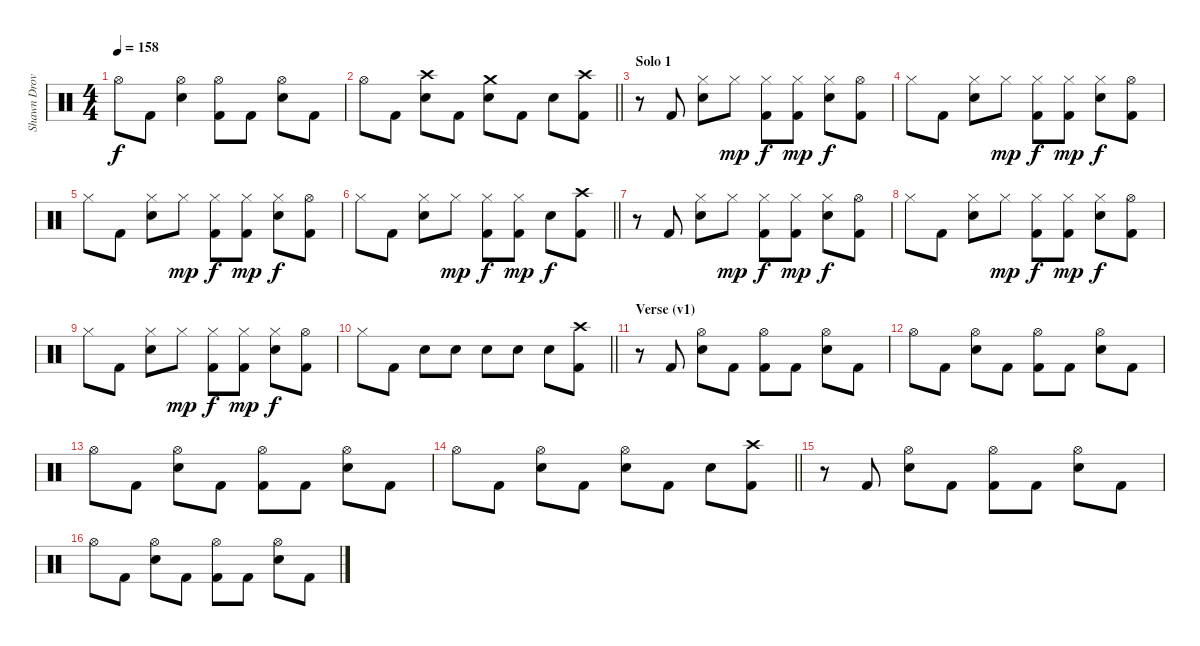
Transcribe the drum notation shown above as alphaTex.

\track ("Shawn Drover" "Shawn Drov") {instrument percussion}
\staff
\articulation defaults
\ts (4 4)
\tempo 158
\clef neutral
\ks c "Hi-Hat (open)".8{dy f} "Kick (hit) 2".8
("Hi-Hat (open)" "Snare (hit) 2").4 ("Hi-Hat (open)" "Kick (hit) 2").8 "Kick (hit) 2".8 ("Hi-Hat (open)" "Snare (hit) 2").8 "Kick (hit) 2".8 |
\barLineRight lightlight "Hi-Hat (open)".8 "Kick (hit) 2".8
("Crash high (hit)" "Snare (hit) 2").8 "Kick (hit) 2".8 ("Crash medium (hit)" "Snare (hit) 2").8 "Kick (hit) 2".8 "Snare (hit) 2".8 ("Crash high (hit)" "Kick (hit) 2").8 |
\section ("" "Solo 1")
r.8 "Kick (hit) 2".8 ("Hi-Hat (closed)" "Snare (hit) 2").8 "Hi-Hat (closed)".8{dy mp} ("Hi-Hat (closed)" "Kick (hit) 2").8{dy f} ("Hi-Hat (closed)" "Kick (hit) 2").8{dy mp} ("Hi-Hat (closed)" "Snare (hit) 2").8{dy f} ("Hi-Hat (open)" "Kick (hit) 2").8 |
"Hi-Hat (closed)".8 "Kick (hit) 2".8 ("Hi-Hat (closed)" "Snare (hit) 2").8 "Hi-Hat (closed)".8{dy mp} ("Hi-Hat (closed)" "Kick (hit) 2").8{dy f} ("Hi-Hat (closed)" "Kick (hit) 2").8{dy mp} ("Hi-Hat (closed)" "Snare (hit) 2").8{dy f} ("Hi-Hat (open)" "Kick (hit) 2").8 |
"Hi-Hat (closed)".8 "Kick (hit) 2".8 ("Hi-Hat (closed)" "Snare (hit) 2").8 "Hi-Hat (closed)".8{dy mp} ("Hi-Hat (closed)" "Kick (hit) 2").8{dy f} ("Hi-Hat (closed)" "Kick (hit) 2").8{dy mp} ("Hi-Hat (closed)" "Snare (hit) 2").8{dy f} ("Hi-Hat (open)" "Kick (hit) 2").8 |
\barLineRight lightlight "Hi-Hat (closed)".8 "Kick (hit) 2".8
("Hi-Hat (closed)" "Snare (hit) 2").8 "Hi-Hat (closed)".8{dy mp} ("Hi-Hat (closed)" "Kick (hit) 2").8{dy f} ("Hi-Hat (closed)" "Kick (hit) 2").8{dy mp} "Snare (hit) 2".8{dy f} ("Crash high (hit)" "Kick (hit) 2").8 |
r.8 "Kick (hit) 2".8 ("Hi-Hat (closed)" "Snare (hit) 2").8 "Hi-Hat (closed)".8{dy mp} ("Hi-Hat (closed)" "Kick (hit) 2").8{dy f} ("Hi-Hat (closed)" "Kick (hit) 2").8{dy mp} ("Hi-Hat (closed)" "Snare (hit) 2").8{dy f} ("Hi-Hat (open)" "Kick (hit) 2").8 |
"Hi-Hat (closed)".8 "Kick (hit) 2".8 ("Hi-Hat (closed)" "Snare (hit) 2").8 "Hi-Hat (closed)".8{dy mp} ("Hi-Hat (closed)" "Kick (hit) 2").8{dy f} ("Hi-Hat (closed)" "Kick (hit) 2").8{dy mp} ("Hi-Hat (closed)" "Snare (hit) 2").8{dy f} ("Hi-Hat (open)" "Kick (hit) 2").8 |
"Hi-Hat (closed)".8 "Kick (hit) 2".8 ("Hi-Hat (closed)" "Snare (hit) 2").8 "Hi-Hat (closed)".8{dy mp} ("Hi-Hat (closed)" "Kick (hit) 2").8{dy f} ("Hi-Hat (closed)" "Kick (hit) 2").8{dy mp} ("Hi-Hat (closed)" "Snare (hit) 2").8{dy f} ("Hi-Hat (open)" "Kick (hit) 2").8 |
\barLineRight lightlight "Hi-Hat (closed)".8 "Kick (hit) 2".8 "Snare (hit) 2".8 "Snare (hit) 2".8 "Snare (hit) 2".8 "Snare (hit) 2".8 "Snare (hit) 2".8
("Crash high (hit)" "Kick (hit) 2").8 |
\section ("" "Verse (v1)")
r.8 "Kick (hit) 2".8 ("Hi-Hat (open)" "Snare (hit) 2").8 "Kick (hit) 2".8 ("Hi-Hat (open)" "Kick (hit) 2").8 "Kick (hit) 2".8 ("Hi-Hat (open)" "Snare (hit) 2").8 "Kick (hit) 2".8 |
"Hi-Hat (open)".8 "Kick (hit) 2".8 ("Hi-Hat (open)" "Snare (hit) 2").8 "Kick (hit) 2".8 ("Hi-Hat (open)" "Kick (hit) 2").8 "Kick (hit) 2".8 ("Hi-Hat (open)" "Snare (hit) 2").8 "Kick (hit) 2".8 |
"Hi-Hat (open)".8 "Kick (hit) 2".8 ("Hi-Hat (open)" "Snare (hit) 2").8 "Kick (hit) 2".8 ("Hi-Hat (open)" "Kick (hit) 2").8 "Kick (hit) 2".8 ("Hi-Hat (open)" "Snare (hit) 2").8 "Kick (hit) 2".8 |
\barLineRight lightlight "Hi-Hat (open)".8 "Kick (hit) 2".8
("Hi-Hat (open)" "Snare (hit) 2").8 "Kick (hit) 2".8 ("Hi-Hat (open)" "Snare (hit) 2").8 "Kick (hit) 2".8 "Snare (hit) 2".8 ("Crash high (hit)" "Kick (hit) 2").8 |
r.8 "Kick (hit) 2".8 ("Hi-Hat (open)" "Snare (hit) 2").8 "Kick (hit) 2".8 ("Hi-Hat (open)" "Kick (hit) 2").8 "Kick (hit) 2".8 ("Hi-Hat (open)" "Snare (hit) 2").8 "Kick (hit) 2".8 |
"Hi-Hat (open)".8 "Kick (hit) 2".8 ("Hi-Hat (open)" "Snare (hit) 2").8 "Kick (hit) 2".8 ("Hi-Hat (open)" "Kick (hit) 2").8 "Kick (hit) 2".8 ("Hi-Hat (open)" "Snare (hit) 2").8 "Kick (hit) 2".8
